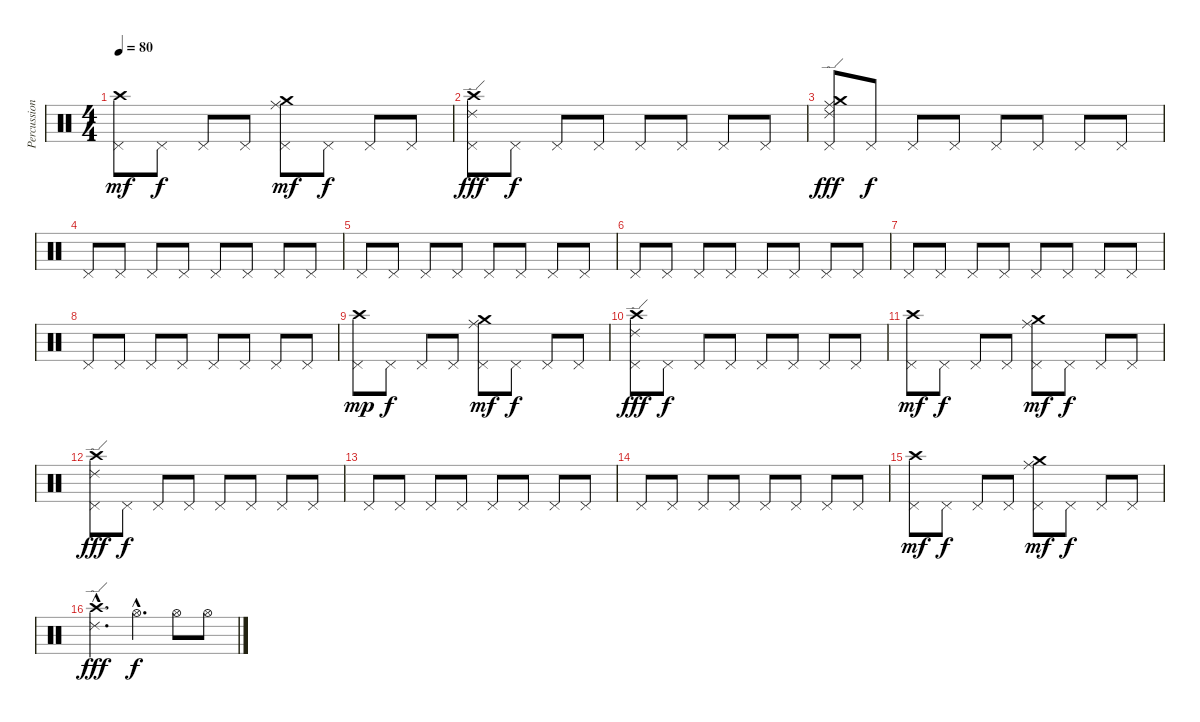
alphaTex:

\track ("Percussion" "Percussion") {instrument percussion}
\staff {score}
\articulation defaults
\ts (4 4)
\tempo 80
\clef neutral
\ks c
("Crash high (hit)" "Pedal Hi-Hat (hit)").8{dy mf} "Pedal Hi-Hat (hit)".8{dy f} "Pedal Hi-Hat (hit)".8 "Pedal Hi-Hat (hit)".8 ("Ride (middle)" "Crash medium (hit)" "Pedal Hi-Hat (hit)").8{dy mf} "Pedal Hi-Hat (hit)".8{dy f} "Pedal Hi-Hat (hit)".8 "Pedal Hi-Hat (hit)".8 |
("Crash high (hit)" "Ride (edge) 2" "Pedal Hi-Hat (hit)").8{dy fff} "Pedal Hi-Hat (hit)".8{dy f} "Pedal Hi-Hat (hit)".8 "Pedal Hi-Hat (hit)".8 "Pedal Hi-Hat (hit)".8 "Pedal Hi-Hat (hit)".8 "Pedal Hi-Hat (hit)".8 "Pedal Hi-Hat (hit)".8 |
("Crash medium (hit)" "Ride (middle)" "Ride (edge) 2" "Pedal Hi-Hat (hit)").8{dy fff} "Pedal Hi-Hat (hit)".8{dy f} "Pedal Hi-Hat (hit)".8 "Pedal Hi-Hat (hit)".8 "Pedal Hi-Hat (hit)".8 "Pedal Hi-Hat (hit)".8 "Pedal Hi-Hat (hit)".8 "Pedal Hi-Hat (hit)".8 |
"Pedal Hi-Hat (hit)".8 "Pedal Hi-Hat (hit)".8 "Pedal Hi-Hat (hit)".8 "Pedal Hi-Hat (hit)".8 "Pedal Hi-Hat (hit)".8 "Pedal Hi-Hat (hit)".8 "Pedal Hi-Hat (hit)".8 "Pedal Hi-Hat (hit)".8 |
"Pedal Hi-Hat (hit)".8 "Pedal Hi-Hat (hit)".8 "Pedal Hi-Hat (hit)".8 "Pedal Hi-Hat (hit)".8 "Pedal Hi-Hat (hit)".8 "Pedal Hi-Hat (hit)".8 "Pedal Hi-Hat (hit)".8 "Pedal Hi-Hat (hit)".8 |
"Pedal Hi-Hat (hit)".8 "Pedal Hi-Hat (hit)".8 "Pedal Hi-Hat (hit)".8 "Pedal Hi-Hat (hit)".8 "Pedal Hi-Hat (hit)".8 "Pedal Hi-Hat (hit)".8 "Pedal Hi-Hat (hit)".8 "Pedal Hi-Hat (hit)".8 |
"Pedal Hi-Hat (hit)".8 "Pedal Hi-Hat (hit)".8 "Pedal Hi-Hat (hit)".8 "Pedal Hi-Hat (hit)".8 "Pedal Hi-Hat (hit)".8 "Pedal Hi-Hat (hit)".8 "Pedal Hi-Hat (hit)".8 "Pedal Hi-Hat (hit)".8 |
"Pedal Hi-Hat (hit)".8 "Pedal Hi-Hat (hit)".8 "Pedal Hi-Hat (hit)".8 "Pedal Hi-Hat (hit)".8 "Pedal Hi-Hat (hit)".8 "Pedal Hi-Hat (hit)".8 "Pedal Hi-Hat (hit)".8 "Pedal Hi-Hat (hit)".8 |
("Crash high (hit)" "Pedal Hi-Hat (hit)").8{dy mp} "Pedal Hi-Hat (hit)".8{dy f} "Pedal Hi-Hat (hit)".8 "Pedal Hi-Hat (hit)".8 ("Ride (middle)" "Crash medium (hit)" "Pedal Hi-Hat (hit)").8{dy mf} "Pedal Hi-Hat (hit)".8{dy f} "Pedal Hi-Hat (hit)".8 "Pedal Hi-Hat (hit)".8 |
("Crash high (hit)" "Ride (edge) 2" "Pedal Hi-Hat (hit)").8{dy fff} "Pedal Hi-Hat (hit)".8{dy f} "Pedal Hi-Hat (hit)".8 "Pedal Hi-Hat (hit)".8 "Pedal Hi-Hat (hit)".8 "Pedal Hi-Hat (hit)".8 "Pedal Hi-Hat (hit)".8 "Pedal Hi-Hat (hit)".8 |
("Crash high (hit)" "Pedal Hi-Hat (hit)").8{dy mf} "Pedal Hi-Hat (hit)".8{dy f} "Pedal Hi-Hat (hit)".8 "Pedal Hi-Hat (hit)".8 ("Ride (middle)" "Crash medium (hit)" "Pedal Hi-Hat (hit)").8{dy mf} "Pedal Hi-Hat (hit)".8{dy f} "Pedal Hi-Hat (hit)".8 "Pedal Hi-Hat (hit)".8 |
("Crash high (hit)" "Ride (edge) 2" "Pedal Hi-Hat (hit)").8{dy fff} "Pedal Hi-Hat (hit)".8{dy f} "Pedal Hi-Hat (hit)".8 "Pedal Hi-Hat (hit)".8 "Pedal Hi-Hat (hit)".8 "Pedal Hi-Hat (hit)".8 "Pedal Hi-Hat (hit)".8 "Pedal Hi-Hat (hit)".8 |
"Pedal Hi-Hat (hit)".8 "Pedal Hi-Hat (hit)".8 "Pedal Hi-Hat (hit)".8 "Pedal Hi-Hat (hit)".8 "Pedal Hi-Hat (hit)".8 "Pedal Hi-Hat (hit)".8 "Pedal Hi-Hat (hit)".8 "Pedal Hi-Hat (hit)".8 |
"Pedal Hi-Hat (hit)".8 "Pedal Hi-Hat (hit)".8 "Pedal Hi-Hat (hit)".8 "Pedal Hi-Hat (hit)".8 "Pedal Hi-Hat (hit)".8 "Pedal Hi-Hat (hit)".8 "Pedal Hi-Hat (hit)".8 "Pedal Hi-Hat (hit)".8 |
("Crash high (hit)" "Pedal Hi-Hat (hit)").8{dy mf} "Pedal Hi-Hat (hit)".8{dy f} "Pedal Hi-Hat (hit)".8 "Pedal Hi-Hat (hit)".8 ("Ride (middle)" "Crash medium (hit)" "Pedal Hi-Hat (hit)").8{dy mf} "Pedal Hi-Hat (hit)".8{dy f} "Pedal Hi-Hat (hit)".8 "Pedal Hi-Hat (hit)".8 |
("Crash high (hit)"{hac} "Ride (edge) 2"{hac}).4{d dy fff} "Hi-Hat (open)"{hac}.4{d dy f} "Hi-Hat (open)".8 "Hi-Hat (open)".8
